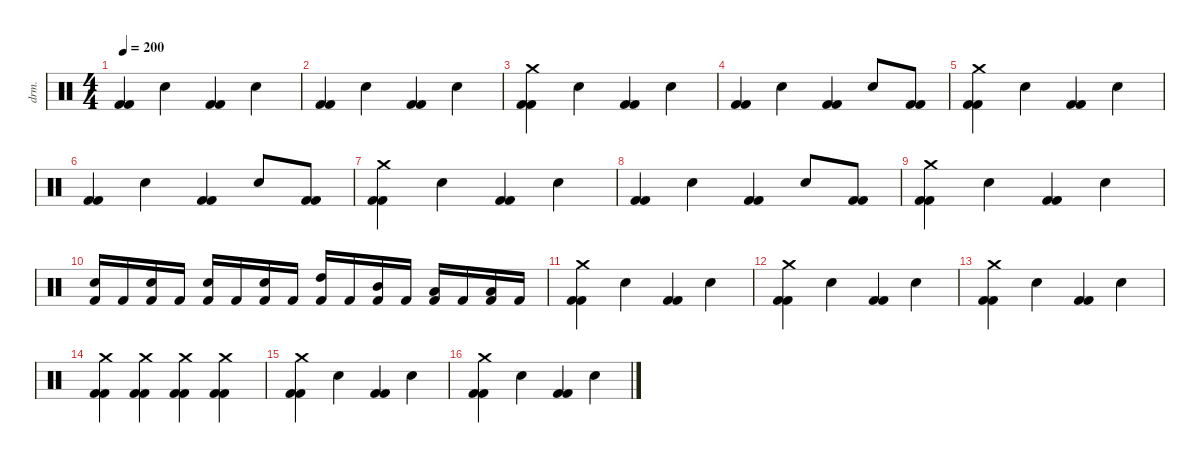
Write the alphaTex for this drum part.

\defaultSystemsLayout 4
\hideDynamics
\bracketExtendMode nobrackets
\track ("Perkusja" "drm.") {instrument percussion}
\staff {score}
\articulation defaults
\ts (4 4)
\tempo 200
\clef neutral
\ks c
("Kick (hit) 2" "Kick (hit) 2").4{dy f} "Snare (hit) 2".4 ("Kick (hit) 2" "Kick (hit) 2").4 "Snare (hit) 2".4 |
("Kick (hit) 2" "Kick (hit) 2").4 "Snare (hit) 2".4 ("Kick (hit) 2" "Kick (hit) 2").4 "Snare (hit) 2".4 |
("Crash medium (hit)" "Kick (hit) 2" "Kick (hit) 2").4 "Snare (hit) 2".4 ("Kick (hit) 2" "Kick (hit) 2").4 "Snare (hit) 2".4 |
("Kick (hit) 2" "Kick (hit) 2").4 "Snare (hit) 2".4 ("Kick (hit) 2" "Kick (hit) 2").4 "Snare (hit) 2".8 ("Kick (hit) 2" "Kick (hit) 2").8 |
("Crash medium (hit)" "Kick (hit) 2" "Kick (hit) 2").4 "Snare (hit) 2".4 ("Kick (hit) 2" "Kick (hit) 2").4 "Snare (hit) 2".4 |
("Kick (hit) 2" "Kick (hit) 2").4 "Snare (hit) 2".4 ("Kick (hit) 2" "Kick (hit) 2").4 "Snare (hit) 2".8 ("Kick (hit) 2" "Kick (hit) 2").8 |
("Crash medium (hit)" "Kick (hit) 2" "Kick (hit) 2").4 "Snare (hit) 2".4 ("Kick (hit) 2" "Kick (hit) 2").4 "Snare (hit) 2".4 |
("Kick (hit) 2" "Kick (hit) 2").4 "Snare (hit) 2".4 ("Kick (hit) 2" "Kick (hit) 2").4 "Snare (hit) 2".8 ("Kick (hit) 2" "Kick (hit) 2").8 |
("Crash medium (hit)" "Kick (hit) 2" "Kick (hit) 2").4 "Snare (hit) 2".4 ("Kick (hit) 2" "Kick (hit) 2").4 "Snare (hit) 2".4 |
("Snare (hit) 2" "Kick (hit) 2").16 "Kick (hit) 2".16 ("Snare (hit) 2" "Kick (hit) 2").16 "Kick (hit) 2".16 ("Snare (hit) 2" "Kick (hit) 2").16 "Kick (hit) 2".16 ("Snare (hit) 2" "Kick (hit) 2").16 "Kick (hit) 2".16 ("High Tom (hit)" "Kick (hit) 2").16 "Kick (hit) 2".16 ("Mid Tom (hit)" "Kick (hit) 2").16 "Kick (hit) 2".16 ("Low Tom (hit)" "Kick (hit) 2").16 "Kick (hit) 2".16 ("Low Floor Tom (hit)" "Kick (hit) 2").16 "Kick (hit) 2".16 |
("Crash medium (hit)" "Kick (hit) 2" "Kick (hit) 2").4 "Snare (hit) 2".4 ("Kick (hit) 2" "Kick (hit) 2").4 "Snare (hit) 2".4 |
("Crash medium (hit)" "Kick (hit) 2" "Kick (hit) 2").4 "Snare (hit) 2".4 ("Kick (hit) 2" "Kick (hit) 2").4 "Snare (hit) 2".4 |
("Crash medium (hit)" "Kick (hit) 2" "Kick (hit) 2").4 "Snare (hit) 2".4 ("Kick (hit) 2" "Kick (hit) 2").4 "Snare (hit) 2".4 |
("Crash medium (hit)" "Kick (hit) 2" "Kick (hit) 2").4 ("Crash medium (hit)" "Kick (hit) 2" "Kick (hit) 2").4 ("Crash medium (hit)" "Kick (hit) 2" "Kick (hit) 2").4 ("Crash medium (hit)" "Kick (hit) 2" "Kick (hit) 2").4 |
("Crash medium (hit)" "Kick (hit) 2" "Kick (hit) 2").4 "Snare (hit) 2".4 ("Kick (hit) 2" "Kick (hit) 2").4 "Snare (hit) 2".4 |
("Crash medium (hit)" "Kick (hit) 2" "Kick (hit) 2").4 "Snare (hit) 2".4 ("Kick (hit) 2" "Kick (hit) 2").4 "Snare (hit) 2".4
